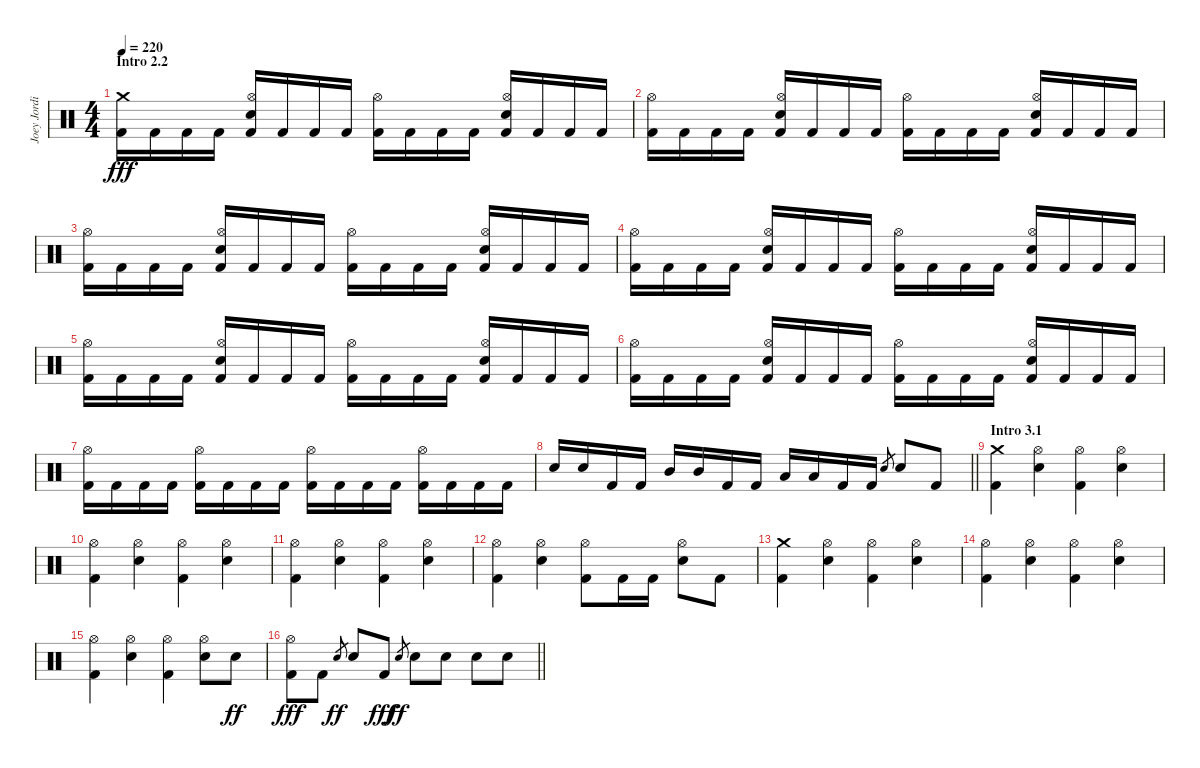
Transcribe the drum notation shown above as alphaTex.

\track ("Joey Jordison" "Joey Jordi") {instrument percussion}
\staff {score}
\articulation defaults
\ts (4 4)
\section ("" "Intro 2.2")
\tempo 220
\clef neutral
\ks c
("Crash medium (hit)" "Kick (hit) 2").16{dy fff} "Kick (hit) 2".16 "Kick (hit) 2".16 "Kick (hit) 2".16 ("Hi-Hat (open)" "Electric Snare (hit)" "Kick (hit) 2").16 "Kick (hit) 2".16 "Kick (hit) 2".16 "Kick (hit) 2".16 ("Hi-Hat (open)" "Kick (hit) 2").16 "Kick (hit) 2".16 "Kick (hit) 2".16 "Kick (hit) 2".16 ("Hi-Hat (open)" "Electric Snare (hit)" "Kick (hit) 2").16 "Kick (hit) 2".16 "Kick (hit) 2".16 "Kick (hit) 2".16 |
("Hi-Hat (open)" "Kick (hit) 2").16 "Kick (hit) 2".16 "Kick (hit) 2".16 "Kick (hit) 2".16 ("Hi-Hat (open)" "Electric Snare (hit)" "Kick (hit) 2").16 "Kick (hit) 2".16 "Kick (hit) 2".16 "Kick (hit) 2".16 ("Hi-Hat (open)" "Kick (hit) 2").16 "Kick (hit) 2".16 "Kick (hit) 2".16 "Kick (hit) 2".16 ("Hi-Hat (open)" "Electric Snare (hit)" "Kick (hit) 2").16 "Kick (hit) 2".16 "Kick (hit) 2".16 "Kick (hit) 2".16 |
("Hi-Hat (open)" "Kick (hit) 2").16 "Kick (hit) 2".16 "Kick (hit) 2".16 "Kick (hit) 2".16 ("Hi-Hat (open)" "Electric Snare (hit)" "Kick (hit) 2").16 "Kick (hit) 2".16 "Kick (hit) 2".16 "Kick (hit) 2".16 ("Hi-Hat (open)" "Kick (hit) 2").16 "Kick (hit) 2".16 "Kick (hit) 2".16 "Kick (hit) 2".16 ("Hi-Hat (open)" "Electric Snare (hit)" "Kick (hit) 2").16 "Kick (hit) 2".16 "Kick (hit) 2".16 "Kick (hit) 2".16 |
("Hi-Hat (open)" "Kick (hit) 2").16 "Kick (hit) 2".16 "Kick (hit) 2".16 "Kick (hit) 2".16 ("Hi-Hat (open)" "Electric Snare (hit)" "Kick (hit) 2").16 "Kick (hit) 2".16 "Kick (hit) 2".16 "Kick (hit) 2".16 ("Hi-Hat (open)" "Kick (hit) 2").16 "Kick (hit) 2".16 "Kick (hit) 2".16 "Kick (hit) 2".16 ("Hi-Hat (open)" "Electric Snare (hit)" "Kick (hit) 2").16 "Kick (hit) 2".16 "Kick (hit) 2".16 "Kick (hit) 2".16 |
("Hi-Hat (open)" "Kick (hit) 2").16 "Kick (hit) 2".16 "Kick (hit) 2".16 "Kick (hit) 2".16 ("Hi-Hat (open)" "Electric Snare (hit)" "Kick (hit) 2").16 "Kick (hit) 2".16 "Kick (hit) 2".16 "Kick (hit) 2".16 ("Hi-Hat (open)" "Kick (hit) 2").16 "Kick (hit) 2".16 "Kick (hit) 2".16 "Kick (hit) 2".16 ("Hi-Hat (open)" "Electric Snare (hit)" "Kick (hit) 2").16 "Kick (hit) 2".16 "Kick (hit) 2".16 "Kick (hit) 2".16 |
("Hi-Hat (open)" "Kick (hit) 2").16 "Kick (hit) 2".16 "Kick (hit) 2".16 "Kick (hit) 2".16 ("Hi-Hat (open)" "Electric Snare (hit)" "Kick (hit) 2").16 "Kick (hit) 2".16 "Kick (hit) 2".16 "Kick (hit) 2".16 ("Hi-Hat (open)" "Kick (hit) 2").16 "Kick (hit) 2".16 "Kick (hit) 2".16 "Kick (hit) 2".16 ("Hi-Hat (open)" "Electric Snare (hit)" "Kick (hit) 2").16 "Kick (hit) 2".16 "Kick (hit) 2".16 "Kick (hit) 2".16 |
("Hi-Hat (open)" "Kick (hit) 2").16 "Kick (hit) 2".16 "Kick (hit) 2".16 "Kick (hit) 2".16 ("Hi-Hat (open)" "Kick (hit) 2").16 "Kick (hit) 2".16 "Kick (hit) 2".16 "Kick (hit) 2".16 ("Hi-Hat (open)" "Kick (hit) 2").16 "Kick (hit) 2".16 "Kick (hit) 2".16 "Kick (hit) 2".16 ("Hi-Hat (open)" "Kick (hit) 2").16 "Kick (hit) 2".16 "Kick (hit) 2".16 "Kick (hit) 2".16 |
\barLineRight lightlight "Electric Snare (hit)".16 "Electric Snare (hit)".16 "Kick (hit) 2".16 "Kick (hit) 2".16 "Mid Tom (hit)".16 "Mid Tom (hit)".16 "Kick (hit) 2".16 "Kick (hit) 2".16 "Low Tom (hit)".16 "Low Tom (hit)".16 "Kick (hit) 2".16 "Kick (hit) 2".16 "Electric Snare (hit)".8{gr} "Electric Snare (hit)".8 "Kick (hit) 2".8
|
\section ("" "Intro 3.1")
("Crash medium (hit)" "Kick (hit) 2").4 ("Hi-Hat (open)" "Electric Snare (hit)").4 ("Hi-Hat (open)" "Kick (hit) 2").4 ("Hi-Hat (open)" "Electric Snare (hit)").4 |
("Hi-Hat (open)" "Kick (hit) 2").4 ("Hi-Hat (open)" "Electric Snare (hit)").4 ("Hi-Hat (open)" "Kick (hit) 2").4 ("Hi-Hat (open)" "Electric Snare (hit)").4 |
("Hi-Hat (open)" "Kick (hit) 2").4 ("Hi-Hat (open)" "Electric Snare (hit)").4 ("Hi-Hat (open)" "Kick (hit) 2").4 ("Hi-Hat (open)" "Electric Snare (hit)").4 |
("Hi-Hat (open)" "Kick (hit) 2").4 ("Hi-Hat (open)" "Electric Snare (hit)").4 ("Hi-Hat (open)" "Kick (hit) 2").8 "Kick (hit) 2".16 "Kick (hit) 2".16 ("Hi-Hat (open)" "Electric Snare (hit)").8 "Kick (hit) 2".8 |
("Crash medium (hit)" "Kick (hit) 2").4 ("Hi-Hat (open)" "Electric Snare (hit)").4 ("Hi-Hat (open)" "Kick (hit) 2").4 ("Hi-Hat (open)" "Electric Snare (hit)").4 |
("Hi-Hat (open)" "Kick (hit) 2").4 ("Hi-Hat (open)" "Electric Snare (hit)").4 ("Hi-Hat (open)" "Kick (hit) 2").4 ("Hi-Hat (open)" "Electric Snare (hit)").4 |
("Hi-Hat (open)" "Kick (hit) 2").4 ("Hi-Hat (open)" "Electric Snare (hit)").4 ("Hi-Hat (open)" "Kick (hit) 2").4 ("Hi-Hat (open)" "Electric Snare (hit)").8 "Electric Snare (hit)".8{dy ff} |
\barLineRight lightlight
("Hi-Hat (open)" "Kick (hit) 2").8{dy fff} "Kick (hit) 2".8 "Electric Snare (hit)".8{gr dy ff} "Electric Snare (hit)".8 "Kick (hit) 2".8{dy fff} "Electric Snare (hit)".8{gr dy ff} "Electric Snare (hit)".8 "Electric Snare (hit)".8 "Electric Snare (hit)".8 "Electric Snare (hit)".8
